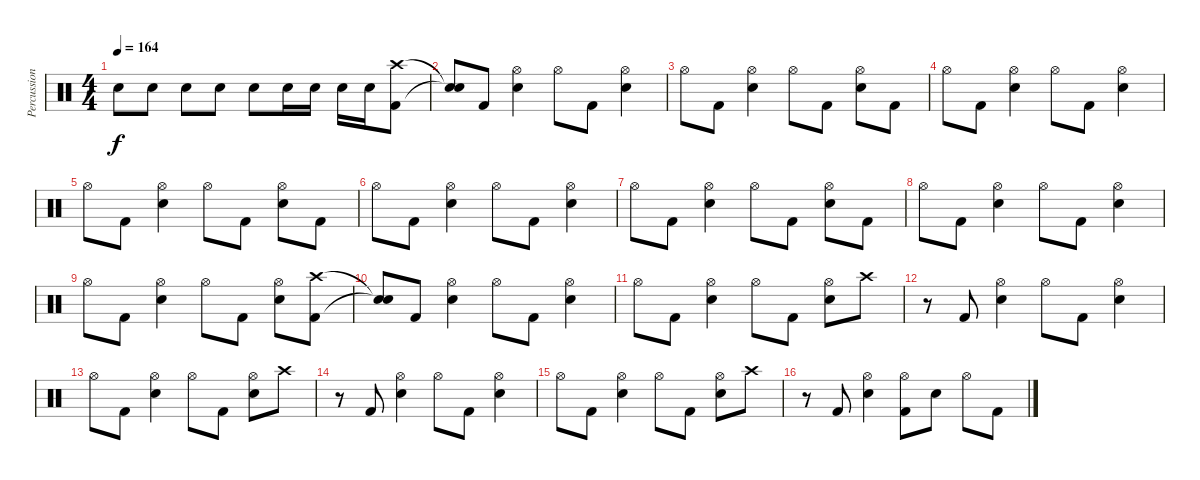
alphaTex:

\track ("Percussion" "Percussion") {instrument percussion}
\staff {score}
\articulation defaults
\ts (4 4)
\tempo 164
\clef neutral
\ks c "Snare (hit) 2".8{dy f} "Snare (hit) 2".8 "Snare (hit) 2".8 "Snare (hit) 2".8 "Snare (hit) 2".8 "Snare (hit) 2".16 "Snare (hit) 2".16 "Snare (hit) 2".16 "Snare (hit) 2".16
("Crash high (hit)" "Kick (hit) 2").8 |
("Snare (hit)"{t} "Snare (hit)"{t}).8 "Kick (hit) 2".8 ("Hi-Hat (open)" "Snare (hit) 2").4 "Hi-Hat (open)".8 "Kick (hit) 2".8 ("Hi-Hat (open)" "Snare (hit) 2").4 |
"Hi-Hat (open)".8 "Kick (hit) 2".8 ("Hi-Hat (open)" "Snare (hit) 2").4 "Hi-Hat (open)".8 "Kick (hit) 2".8 ("Hi-Hat (open)" "Snare (hit) 2").8 "Kick (hit) 2".8 |
"Hi-Hat (open)".8 "Kick (hit) 2".8 ("Hi-Hat (open)" "Snare (hit) 2").4 "Hi-Hat (open)".8 "Kick (hit) 2".8 ("Hi-Hat (open)" "Snare (hit) 2").4 |
"Hi-Hat (open)".8 "Kick (hit) 2".8 ("Hi-Hat (open)" "Snare (hit) 2").4 "Hi-Hat (open)".8 "Kick (hit) 2".8 ("Hi-Hat (open)" "Snare (hit) 2").8 "Kick (hit) 2".8 |
"Hi-Hat (open)".8 "Kick (hit) 2".8 ("Hi-Hat (open)" "Snare (hit) 2").4 "Hi-Hat (open)".8 "Kick (hit) 2".8 ("Hi-Hat (open)" "Snare (hit) 2").4 |
"Hi-Hat (open)".8 "Kick (hit) 2".8 ("Hi-Hat (open)" "Snare (hit) 2").4 "Hi-Hat (open)".8 "Kick (hit) 2".8 ("Hi-Hat (open)" "Snare (hit) 2").8 "Kick (hit) 2".8 |
"Hi-Hat (open)".8 "Kick (hit) 2".8 ("Hi-Hat (open)" "Snare (hit) 2").4 "Hi-Hat (open)".8 "Kick (hit) 2".8 ("Hi-Hat (open)" "Snare (hit) 2").4 |
"Hi-Hat (open)".8 "Kick (hit) 2".8 ("Hi-Hat (open)" "Snare (hit) 2").4 "Hi-Hat (open)".8 "Kick (hit) 2".8 ("Hi-Hat (open)" "Snare (hit) 2").8 ("Crash high (hit)" "Kick (hit) 2").8 |
("Snare (hit)"{t} "Snare (hit)"{t}).8 "Kick (hit) 2".8 ("Hi-Hat (open)" "Snare (hit) 2").4 "Hi-Hat (open)".8 "Kick (hit) 2".8 ("Hi-Hat (open)" "Snare (hit) 2").4 |
"Hi-Hat (open)".8 "Kick (hit) 2".8 ("Hi-Hat (open)" "Snare (hit) 2").4 "Hi-Hat (open)".8 "Kick (hit) 2".8 ("Hi-Hat (open)" "Snare (hit) 2").8 "Crash high (hit)".8 |
r.8 "Kick (hit) 2".8 ("Hi-Hat (open)" "Snare (hit) 2").4 "Hi-Hat (open)".8 "Kick (hit) 2".8 ("Hi-Hat (open)" "Snare (hit) 2").4 |
"Hi-Hat (open)".8 "Kick (hit) 2".8 ("Hi-Hat (open)" "Snare (hit) 2").4 "Hi-Hat (open)".8 "Kick (hit) 2".8 ("Hi-Hat (open)" "Snare (hit) 2").8 "Crash high (hit)".8 |
r.8 "Kick (hit) 2".8 ("Hi-Hat (open)" "Snare (hit) 2").4 "Hi-Hat (open)".8 "Kick (hit) 2".8 ("Hi-Hat (open)" "Snare (hit) 2").4 |
"Hi-Hat (open)".8 "Kick (hit) 2".8 ("Hi-Hat (open)" "Snare (hit) 2").4 "Hi-Hat (open)".8 "Kick (hit) 2".8 ("Hi-Hat (open)" "Snare (hit) 2").8 "Crash high (hit)".8 |
r.8 "Kick (hit) 2".8 ("Hi-Hat (open)" "Snare (hit) 2").4 ("Hi-Hat (open)" "Kick (hit) 2").8 "Snare (hit) 2".8 "Hi-Hat (open)".8 "Kick (hit) 2".8
